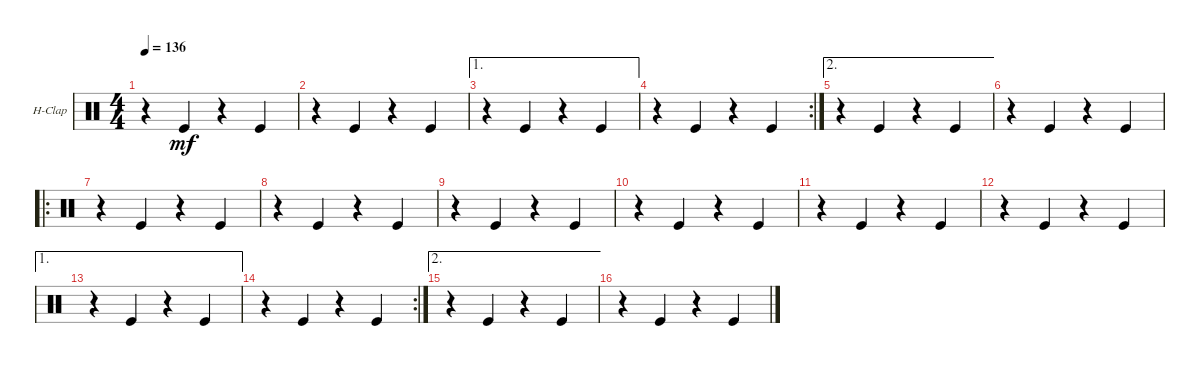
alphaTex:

\defaultSystemsLayout 4
\bracketExtendMode groupsimilarinstruments
\firstSystemTrackNameOrientation horizontal
\otherSystemsTrackNameOrientation horizontal
\track ("Hand Clap" "H-Clap") {instrument percussion}
\staff {score}
\articulation defaults
\ts (4 4)
\tempo 136
\clef neutral
\scale
0.474178
\ks c
r.4{dy mf} "Kick (hit)".4 r.4 "Kick (hit)".4 |
\scale
0.262911 r.4 "Kick (hit)".4 r.4 "Kick (hit)".4 |
\ae 1
\scale
0.262911 r.4 "Kick (hit)".4 r.4 "Kick (hit)".4 |
\rc 2
\scale
0.356322 r.4 "Kick (hit)".4 r.4 "Kick (hit)".4 |
\ae 2
\scale
0.321839 r.4 "Kick (hit)".4 r.4 "Kick (hit)".4 |
\scale
0.321839 r.4 "Kick (hit)".4 r.4 "Kick (hit)".4 |
\ro
\scale
0.377778 r.4 "Kick (hit)".4 r.4 "Kick (hit)".4 |
\scale
0.311111 r.4 "Kick (hit)".4 r.4 "Kick (hit)".4 |
\scale
0.311111 r.4 "Kick (hit)".4 r.4 "Kick (hit)".4 |
\scale
0.333333 r.4 "Kick (hit)".4 r.4 "Kick (hit)".4 |
\scale
0.333333 r.4 "Kick (hit)".4 r.4 "Kick (hit)".4 |
\scale
0.333333 r.4 "Kick (hit)".4 r.4 "Kick (hit)".4 |
\ae 1
\scale
0.321839 r.4 "Kick (hit)".4 r.4 "Kick (hit)".4 |
\rc 2
\scale
0.356322 r.4 "Kick (hit)".4 r.4 "Kick (hit)".4 |
\ae 2
\scale
0.321839 r.4 "Kick (hit)".4 r.4 "Kick (hit)".4 |
\scale
0.311111 r.4 "Kick (hit)".4 r.4 "Kick (hit)".4
